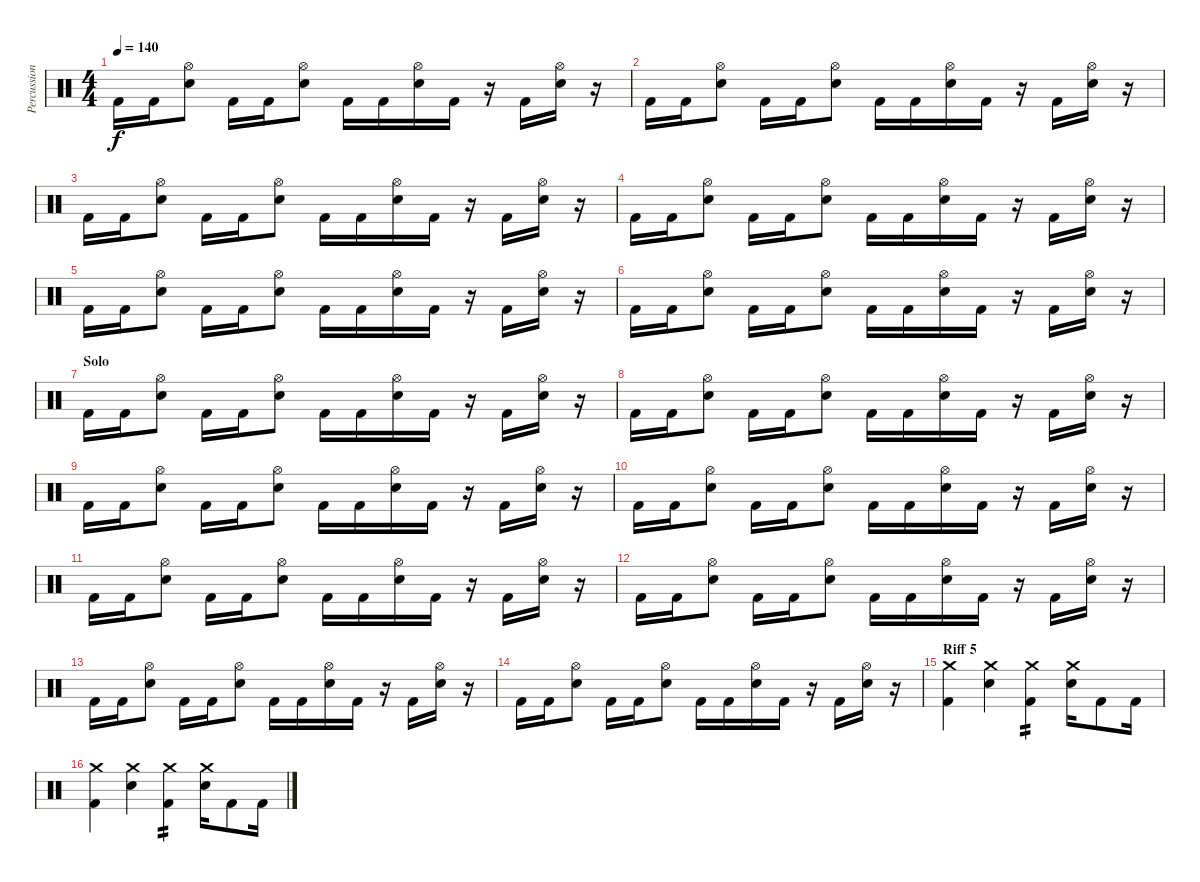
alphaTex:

\track ("Percussions" "Percussion") {instrument percussion}
\staff {score}
\articulation defaults
\ts (4 4)
\tempo 140
\clef neutral
\ks c "Kick (hit) 2".16{dy f} "Kick (hit) 2".16
("Hi-Hat (open)" "Snare (hit) 2").8 "Kick (hit) 2".16 "Kick (hit) 2".16 ("Hi-Hat (open)" "Snare (hit) 2").8 "Kick (hit) 2".16 "Kick (hit) 2".16 ("Hi-Hat (open)" "Snare (hit) 2").16 "Kick (hit) 2".16 r.16 "Kick (hit) 2".16 ("Hi-Hat (open)" "Snare (hit) 2").16 r.16 |
"Kick (hit) 2".16 "Kick (hit) 2".16 ("Hi-Hat (open)" "Snare (hit) 2").8 "Kick (hit) 2".16 "Kick (hit) 2".16 ("Hi-Hat (open)" "Snare (hit) 2").8 "Kick (hit) 2".16 "Kick (hit) 2".16 ("Hi-Hat (open)" "Snare (hit) 2").16 "Kick (hit) 2".16 r.16 "Kick (hit) 2".16 ("Hi-Hat (open)" "Snare (hit) 2").16 r.16 |
"Kick (hit) 2".16 "Kick (hit) 2".16 ("Hi-Hat (open)" "Snare (hit) 2").8 "Kick (hit) 2".16 "Kick (hit) 2".16 ("Hi-Hat (open)" "Snare (hit) 2").8 "Kick (hit) 2".16 "Kick (hit) 2".16 ("Hi-Hat (open)" "Snare (hit) 2").16 "Kick (hit) 2".16 r.16 "Kick (hit) 2".16 ("Hi-Hat (open)" "Snare (hit) 2").16 r.16 |
"Kick (hit) 2".16 "Kick (hit) 2".16 ("Hi-Hat (open)" "Snare (hit) 2").8 "Kick (hit) 2".16 "Kick (hit) 2".16 ("Hi-Hat (open)" "Snare (hit) 2").8 "Kick (hit) 2".16 "Kick (hit) 2".16 ("Hi-Hat (open)" "Snare (hit) 2").16 "Kick (hit) 2".16 r.16 "Kick (hit) 2".16 ("Hi-Hat (open)" "Snare (hit) 2").16 r.16 |
"Kick (hit) 2".16 "Kick (hit) 2".16 ("Hi-Hat (open)" "Snare (hit) 2").8 "Kick (hit) 2".16 "Kick (hit) 2".16 ("Hi-Hat (open)" "Snare (hit) 2").8 "Kick (hit) 2".16 "Kick (hit) 2".16 ("Hi-Hat (open)" "Snare (hit) 2").16 "Kick (hit) 2".16 r.16 "Kick (hit) 2".16 ("Hi-Hat (open)" "Snare (hit) 2").16 r.16 |
"Kick (hit) 2".16 "Kick (hit) 2".16 ("Hi-Hat (open)" "Snare (hit) 2").8 "Kick (hit) 2".16 "Kick (hit) 2".16 ("Hi-Hat (open)" "Snare (hit) 2").8 "Kick (hit) 2".16 "Kick (hit) 2".16 ("Hi-Hat (open)" "Snare (hit) 2").16 "Kick (hit) 2".16 r.16 "Kick (hit) 2".16 ("Hi-Hat (open)" "Snare (hit) 2").16 r.16 |
\section ("" "Solo")
"Kick (hit) 2".16 "Kick (hit) 2".16 ("Hi-Hat (open)" "Snare (hit) 2").8 "Kick (hit) 2".16 "Kick (hit) 2".16 ("Hi-Hat (open)" "Snare (hit) 2").8 "Kick (hit) 2".16 "Kick (hit) 2".16 ("Hi-Hat (open)" "Snare (hit) 2").16 "Kick (hit) 2".16 r.16 "Kick (hit) 2".16 ("Hi-Hat (open)" "Snare (hit) 2").16 r.16 |
"Kick (hit) 2".16 "Kick (hit) 2".16 ("Hi-Hat (open)" "Snare (hit) 2").8 "Kick (hit) 2".16 "Kick (hit) 2".16 ("Hi-Hat (open)" "Snare (hit) 2").8 "Kick (hit) 2".16 "Kick (hit) 2".16 ("Hi-Hat (open)" "Snare (hit) 2").16 "Kick (hit) 2".16 r.16 "Kick (hit) 2".16 ("Hi-Hat (open)" "Snare (hit) 2").16 r.16 |
"Kick (hit) 2".16 "Kick (hit) 2".16 ("Hi-Hat (open)" "Snare (hit) 2").8 "Kick (hit) 2".16 "Kick (hit) 2".16 ("Hi-Hat (open)" "Snare (hit) 2").8 "Kick (hit) 2".16 "Kick (hit) 2".16 ("Hi-Hat (open)" "Snare (hit) 2").16 "Kick (hit) 2".16 r.16 "Kick (hit) 2".16 ("Hi-Hat (open)" "Snare (hit) 2").16 r.16 |
"Kick (hit) 2".16 "Kick (hit) 2".16 ("Hi-Hat (open)" "Snare (hit) 2").8 "Kick (hit) 2".16 "Kick (hit) 2".16 ("Hi-Hat (open)" "Snare (hit) 2").8 "Kick (hit) 2".16 "Kick (hit) 2".16 ("Hi-Hat (open)" "Snare (hit) 2").16 "Kick (hit) 2".16 r.16 "Kick (hit) 2".16 ("Hi-Hat (open)" "Snare (hit) 2").16 r.16 |
"Kick (hit) 2".16 "Kick (hit) 2".16 ("Hi-Hat (open)" "Snare (hit) 2").8 "Kick (hit) 2".16 "Kick (hit) 2".16 ("Hi-Hat (open)" "Snare (hit) 2").8 "Kick (hit) 2".16 "Kick (hit) 2".16 ("Hi-Hat (open)" "Snare (hit) 2").16 "Kick (hit) 2".16 r.16 "Kick (hit) 2".16 ("Hi-Hat (open)" "Snare (hit) 2").16 r.16 |
"Kick (hit) 2".16 "Kick (hit) 2".16 ("Hi-Hat (open)" "Snare (hit) 2").8 "Kick (hit) 2".16 "Kick (hit) 2".16 ("Hi-Hat (open)" "Snare (hit) 2").8 "Kick (hit) 2".16 "Kick (hit) 2".16 ("Hi-Hat (open)" "Snare (hit) 2").16 "Kick (hit) 2".16 r.16 "Kick (hit) 2".16 ("Hi-Hat (open)" "Snare (hit) 2").16 r.16 |
"Kick (hit) 2".16 "Kick (hit) 2".16 ("Hi-Hat (open)" "Snare (hit) 2").8 "Kick (hit) 2".16 "Kick (hit) 2".16 ("Hi-Hat (open)" "Snare (hit) 2").8 "Kick (hit) 2".16 "Kick (hit) 2".16 ("Hi-Hat (open)" "Snare (hit) 2").16 "Kick (hit) 2".16 r.16 "Kick (hit) 2".16 ("Hi-Hat (open)" "Snare (hit) 2").16 r.16 |
"Kick (hit) 2".16 "Kick (hit) 2".16 ("Hi-Hat (open)" "Snare (hit) 2").8 "Kick (hit) 2".16 "Kick (hit) 2".16 ("Hi-Hat (open)" "Snare (hit) 2").8 "Kick (hit) 2".16 "Kick (hit) 2".16 ("Hi-Hat (open)" "Snare (hit) 2").16 "Kick (hit) 2".16 r.16 "Kick (hit) 2".16 ("Hi-Hat (open)" "Snare (hit) 2").16 r.16 |
\section ("" "Riff 5")
("Crash medium (hit)" "Kick (hit) 2").4 ("Crash medium (hit)" "Snare (hit) 2").4 ("Crash medium (hit)" "Kick (hit) 2").4{tp 2} ("Crash medium (hit)" "Snare (hit) 2").16 "Kick (hit) 2".8 "Kick (hit) 2".16 |
("Crash medium (hit)" "Kick (hit) 2").4 ("Crash medium (hit)" "Snare (hit) 2").4 ("Crash medium (hit)" "Kick (hit) 2").4{tp 2} ("Crash medium (hit)" "Snare (hit) 2").16 "Kick (hit) 2".8 "Kick (hit) 2".16
